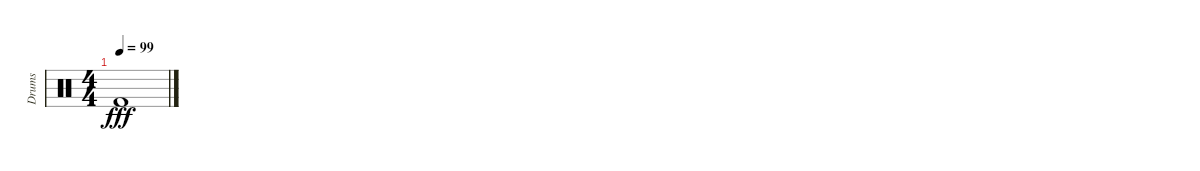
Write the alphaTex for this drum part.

\track ("Drums" "Drums") {instrument percussion}
\staff {score}
\articulation defaults
\ts (4 4)
\tempo 99
\clef neutral
\ks c "Kick (hit) 2".1{dy fff}
